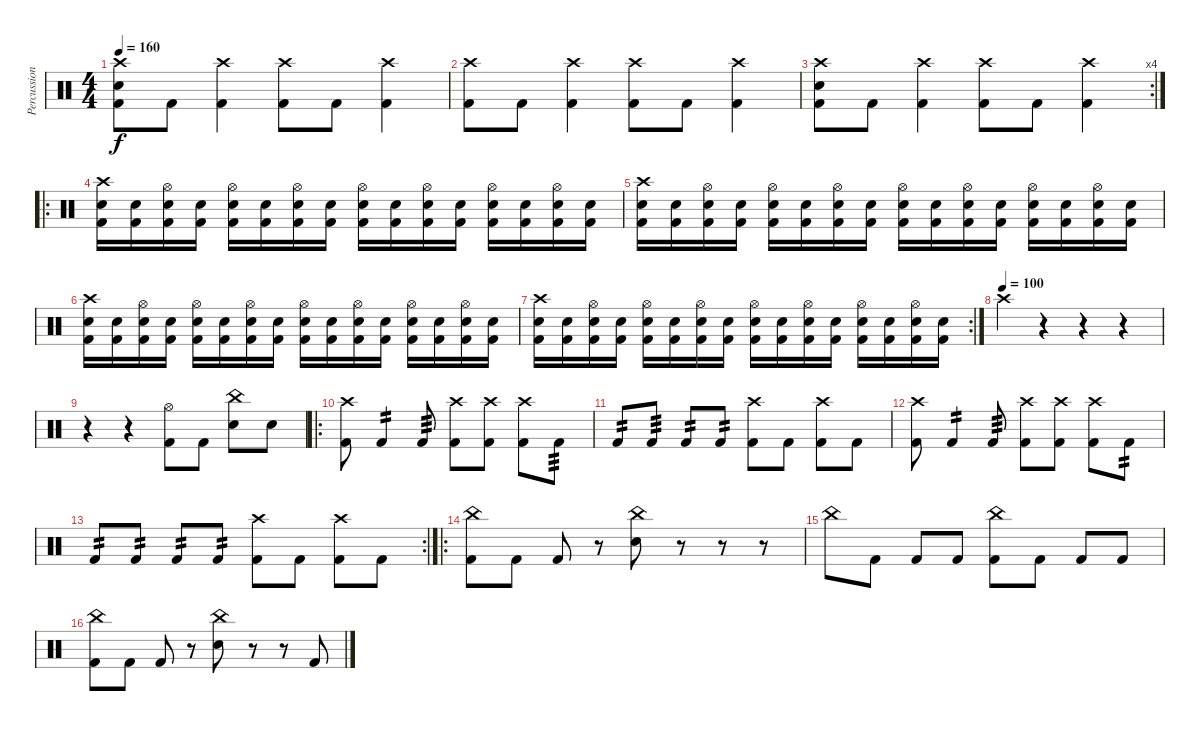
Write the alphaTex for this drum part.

\track ("Percussion" "Percussion") {instrument percussion}
\staff {score}
\articulation defaults
\ts (4 4)
\tempo 160
\clef neutral
\ks c
("Crash high (hit)" "Snare (hit) 2" "Kick (hit) 2").8{dy f} "Kick (hit) 2".8 ("Crash high (hit)" "Kick (hit) 2").4 ("Crash high (hit)" "Kick (hit) 2").8 "Kick (hit) 2".8 ("Crash high (hit)" "Kick (hit) 2").4 |
("Crash high (hit)" "Kick (hit) 2").8 "Kick (hit) 2".8 ("Crash high (hit)" "Kick (hit) 2").4 ("Crash high (hit)" "Kick (hit) 2").8 "Kick (hit) 2".8 ("Crash high (hit)" "Kick (hit) 2").4 |
\rc 4
("Crash high (hit)" "Snare (hit) 2" "Kick (hit) 2").8 "Kick (hit) 2".8 ("Crash high (hit)" "Kick (hit) 2").4 ("Crash high (hit)" "Kick (hit) 2").8 "Kick (hit) 2".8 ("Crash high (hit)" "Kick (hit) 2").4 |
\ro
("Crash high (hit)" "Electric Snare (hit)" "Kick (hit) 2").16 ("Electric Snare (hit)" "Kick (hit) 2").16 ("Hi-Hat (open)" "Electric Snare (hit)" "Kick (hit) 2").16 ("Electric Snare (hit)" "Kick (hit) 2").16 ("Hi-Hat (open)" "Electric Snare (hit)" "Kick (hit) 2").16 ("Electric Snare (hit)" "Kick (hit) 2").16 ("Hi-Hat (open)" "Electric Snare (hit)" "Kick (hit) 2").16 ("Electric Snare (hit)" "Kick (hit) 2").16 ("Hi-Hat (open)" "Electric Snare (hit)" "Kick (hit) 2").16 ("Electric Snare (hit)" "Kick (hit) 2").16 ("Hi-Hat (open)" "Electric Snare (hit)" "Kick (hit) 2").16 ("Electric Snare (hit)" "Kick (hit) 2").16 ("Hi-Hat (open)" "Electric Snare (hit)" "Kick (hit) 2").16 ("Electric Snare (hit)" "Kick (hit) 2").16 ("Hi-Hat (open)" "Electric Snare (hit)" "Kick (hit) 2").16 ("Electric Snare (hit)" "Kick (hit) 2").16 |
("Crash high (hit)" "Electric Snare (hit)" "Kick (hit) 2").16 ("Electric Snare (hit)" "Kick (hit) 2").16 ("Hi-Hat (open)" "Electric Snare (hit)" "Kick (hit) 2").16 ("Electric Snare (hit)" "Kick (hit) 2").16 ("Hi-Hat (open)" "Electric Snare (hit)" "Kick (hit) 2").16 ("Electric Snare (hit)" "Kick (hit) 2").16 ("Hi-Hat (open)" "Electric Snare (hit)" "Kick (hit) 2").16 ("Electric Snare (hit)" "Kick (hit) 2").16 ("Hi-Hat (open)" "Electric Snare (hit)" "Kick (hit) 2").16 ("Electric Snare (hit)" "Kick (hit) 2").16 ("Hi-Hat (open)" "Electric Snare (hit)" "Kick (hit) 2").16 ("Electric Snare (hit)" "Kick (hit) 2").16 ("Hi-Hat (open)" "Electric Snare (hit)" "Kick (hit) 2").16 ("Electric Snare (hit)" "Kick (hit) 2").16 ("Hi-Hat (open)" "Electric Snare (hit)" "Kick (hit) 2").16 ("Electric Snare (hit)" "Kick (hit) 2").16 |
("Crash high (hit)" "Electric Snare (hit)" "Kick (hit) 2").16 ("Electric Snare (hit)" "Kick (hit) 2").16 ("Hi-Hat (open)" "Electric Snare (hit)" "Kick (hit) 2").16 ("Electric Snare (hit)" "Kick (hit) 2").16 ("Hi-Hat (open)" "Electric Snare (hit)" "Kick (hit) 2").16 ("Electric Snare (hit)" "Kick (hit) 2").16 ("Hi-Hat (open)" "Electric Snare (hit)" "Kick (hit) 2").16 ("Electric Snare (hit)" "Kick (hit) 2").16 ("Hi-Hat (open)" "Electric Snare (hit)" "Kick (hit) 2").16 ("Electric Snare (hit)" "Kick (hit) 2").16 ("Hi-Hat (open)" "Electric Snare (hit)" "Kick (hit) 2").16 ("Electric Snare (hit)" "Kick (hit) 2").16 ("Hi-Hat (open)" "Electric Snare (hit)" "Kick (hit) 2").16 ("Electric Snare (hit)" "Kick (hit) 2").16 ("Hi-Hat (open)" "Electric Snare (hit)" "Kick (hit) 2").16 ("Electric Snare (hit)" "Kick (hit) 2").16 |
\rc 2
("Crash high (hit)" "Electric Snare (hit)" "Kick (hit) 2").16 ("Electric Snare (hit)" "Kick (hit) 2").16 ("Hi-Hat (open)" "Electric Snare (hit)" "Kick (hit) 2").16 ("Electric Snare (hit)" "Kick (hit) 2").16 ("Hi-Hat (open)" "Electric Snare (hit)" "Kick (hit) 2").16 ("Electric Snare (hit)" "Kick (hit) 2").16 ("Hi-Hat (open)" "Electric Snare (hit)" "Kick (hit) 2").16 ("Electric Snare (hit)" "Kick (hit) 2").16 ("Hi-Hat (open)" "Electric Snare (hit)" "Kick (hit) 2").16 ("Electric Snare (hit)" "Kick (hit) 2").16 ("Hi-Hat (open)" "Electric Snare (hit)" "Kick (hit) 2").16 ("Electric Snare (hit)" "Kick (hit) 2").16 ("Hi-Hat (open)" "Electric Snare (hit)" "Kick (hit) 2").16 ("Electric Snare (hit)" "Kick (hit) 2").16 ("Hi-Hat (open)" "Electric Snare (hit)" "Kick (hit) 2").16 ("Electric Snare (hit)" "Kick (hit) 2").16 |
\tempo (100)
"Crash high (hit)".4 r.4 r.4 r.4 |
r.4 r.4 ("Hi-Hat (open)" "Kick (hit) 2").8 "Kick (hit) 2".8 ("China (hit)" "Snare (hit) 2").8 "Snare (hit) 2".8 |
\ro
("Crash high (hit)" "Kick (hit) 2").8 "Kick (hit) 2".4{tp 2} "Kick (hit) 2".8{tp 3} ("Crash high (hit)" "Kick (hit) 2").8 ("Crash high (hit)" "Kick (hit) 2").8 ("Crash high (hit)" "Kick (hit) 2").8 "Kick (hit) 2".8{tp 3} |
"Kick (hit) 2".8{tp 2} "Kick (hit) 2".8{tp 3} "Kick (hit) 2".8{tp 2} "Kick (hit) 2".8{tp 2} ("Crash high (hit)" "Kick (hit) 2").8 "Kick (hit) 2".8 ("Crash high (hit)" "Kick (hit) 2").8 "Kick (hit) 2".8 |
("Crash high (hit)" "Kick (hit) 2").8 "Kick (hit) 2".4{tp 2} "Kick (hit) 2".8{tp 3} ("Crash high (hit)" "Kick (hit) 2").8 ("Crash high (hit)" "Kick (hit) 2").8 ("Crash high (hit)" "Kick (hit) 2").8 "Kick (hit) 2".8{tp 2} |
\rc 2 "Kick (hit) 2".8{tp 2} "Kick (hit) 2".8{tp 2} "Kick (hit) 2".8{tp 2} "Kick (hit) 2".8{tp 2}
("Crash high (hit)" "Kick (hit) 2").8 "Kick (hit) 2".8 ("Crash high (hit)" "Kick (hit) 2").8 "Kick (hit) 2".8 |
\ro
("China (hit)" "Kick (hit) 2").8 "Kick (hit) 2".8 "Kick (hit) 2".8 r.8 ("China (hit)" "Snare (hit) 2").8 r.8 r.8 r.8 |
"China (hit)".8 "Kick (hit) 2".8 "Kick (hit) 2".8 "Kick (hit) 2".8 ("China (hit)" "Kick (hit) 2").8 "Kick (hit) 2".8 "Kick (hit) 2".8 "Kick (hit) 2".8 |
("China (hit)" "Kick (hit) 2").8 "Kick (hit) 2".8 "Kick (hit) 2".8 r.8 ("China (hit)" "Snare (hit) 2").8 r.8 r.8 "Kick (hit) 2".8
